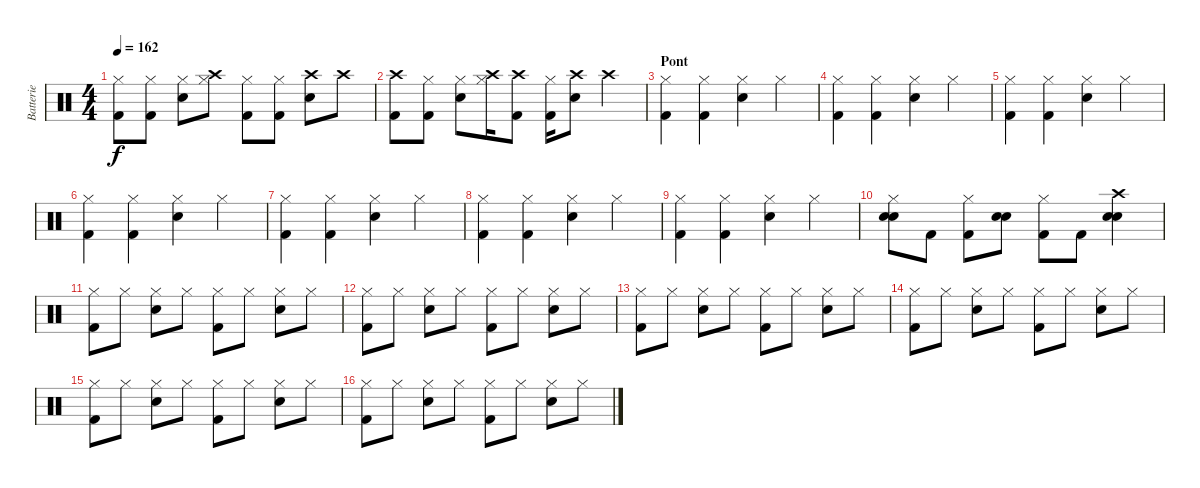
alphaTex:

\track ("Batterie" "Batterie") {instrument percussion}
\staff {score}
\articulation defaults
\ts (4 4)
\tempo 162
\clef neutral
\ks c
("Kick (hit) 2" "Hi-Hat (closed)").8{dy f} ("Kick (hit) 2" "Hi-Hat (closed)").8 ("Snare (hit) 2" "Hi-Hat (closed)").8 ("Hi-Hat (closed)" "Crash high (hit)").8 ("Kick (hit) 2" "Hi-Hat (closed)").8 ("Kick (hit) 2" "Hi-Hat (closed)").8 ("Snare (hit) 2" "Crash high (hit)").8 "Crash high (hit)".8 |
("Kick (hit) 2" "Crash high (hit)").8 ("Kick (hit) 2" "Hi-Hat (closed)").8 ("Snare (hit) 2" "Hi-Hat (closed)").8 ("Hi-Hat (closed)" "Crash high (hit)").16 ("Kick (hit) 2" "Crash high (hit)").8 ("Kick (hit) 2" "Hi-Hat (closed)").16 ("Snare (hit) 2" "Crash high (hit)").8 "Crash high (hit)".4 |
\section ("" "Pont")
("Kick (hit) 2" "Hi-Hat (closed)").4 ("Kick (hit) 2" "Hi-Hat (closed)").4 ("Snare (hit) 2" "Hi-Hat (closed)").4 "Hi-Hat (closed)".4 |
("Kick (hit) 2" "Hi-Hat (closed)").4 ("Kick (hit) 2" "Hi-Hat (closed)").4 ("Snare (hit) 2" "Hi-Hat (closed)").4 "Hi-Hat (closed)".4 |
("Kick (hit) 2" "Hi-Hat (closed)").4 ("Kick (hit) 2" "Hi-Hat (closed)").4 ("Snare (hit) 2" "Hi-Hat (closed)").4 "Hi-Hat (closed)".4 |
("Kick (hit) 2" "Hi-Hat (closed)").4 ("Kick (hit) 2" "Hi-Hat (closed)").4 ("Snare (hit) 2" "Hi-Hat (closed)").4 "Hi-Hat (closed)".4 |
("Kick (hit) 2" "Hi-Hat (closed)").4 ("Kick (hit) 2" "Hi-Hat (closed)").4 ("Snare (hit) 2" "Hi-Hat (closed)").4 "Hi-Hat (closed)".4 |
("Kick (hit) 2" "Hi-Hat (closed)").4 ("Kick (hit) 2" "Hi-Hat (closed)").4 ("Snare (hit) 2" "Hi-Hat (closed)").4 "Hi-Hat (closed)".4 |
("Kick (hit) 2" "Hi-Hat (closed)").4 ("Kick (hit) 2" "Hi-Hat (closed)").4 ("Snare (hit) 2" "Hi-Hat (closed)").4 "Hi-Hat (closed)".4 |
("Snare (hit) 2" "Snare (hit) 2" "Hi-Hat (closed)").8 "Kick (hit) 2".8 ("Kick (hit) 2" "Hi-Hat (closed)").8 ("Snare (hit) 2" "Snare (hit) 2").8 ("Kick (hit) 2" "Hi-Hat (closed)").8 "Kick (hit) 2".8 ("Snare (hit) 2" "Snare (hit) 2" "Crash high (hit)").4 |
("Kick (hit) 2" "Hi-Hat (closed)").8 "Hi-Hat (closed)".8 ("Snare (hit) 2" "Hi-Hat (closed)").8 "Hi-Hat (closed)".8 ("Kick (hit) 2" "Hi-Hat (closed)").8 "Hi-Hat (closed)".8 ("Snare (hit) 2" "Hi-Hat (closed)").8 "Hi-Hat (closed)".8 |
("Kick (hit) 2" "Hi-Hat (closed)").8 "Hi-Hat (closed)".8 ("Snare (hit) 2" "Hi-Hat (closed)").8 "Hi-Hat (closed)".8 ("Kick (hit) 2" "Hi-Hat (closed)").8 "Hi-Hat (closed)".8 ("Snare (hit) 2" "Hi-Hat (closed)").8 "Hi-Hat (closed)".8 |
("Kick (hit) 2" "Hi-Hat (closed)").8 "Hi-Hat (closed)".8 ("Snare (hit) 2" "Hi-Hat (closed)").8 "Hi-Hat (closed)".8 ("Kick (hit) 2" "Hi-Hat (closed)").8 "Hi-Hat (closed)".8 ("Snare (hit) 2" "Hi-Hat (closed)").8 "Hi-Hat (closed)".8 |
("Kick (hit) 2" "Hi-Hat (closed)").8 "Hi-Hat (closed)".8 ("Snare (hit) 2" "Hi-Hat (closed)").8 "Hi-Hat (closed)".8 ("Kick (hit) 2" "Hi-Hat (closed)").8 "Hi-Hat (closed)".8 ("Snare (hit) 2" "Hi-Hat (closed)").8 "Hi-Hat (closed)".8 |
("Kick (hit) 2" "Hi-Hat (closed)").8 "Hi-Hat (closed)".8 ("Snare (hit) 2" "Hi-Hat (closed)").8 "Hi-Hat (closed)".8 ("Kick (hit) 2" "Hi-Hat (closed)").8 "Hi-Hat (closed)".8 ("Snare (hit) 2" "Hi-Hat (closed)").8 "Hi-Hat (closed)".8 |
("Kick (hit) 2" "Hi-Hat (closed)").8 "Hi-Hat (closed)".8 ("Snare (hit) 2" "Hi-Hat (closed)").8 "Hi-Hat (closed)".8 ("Kick (hit) 2" "Hi-Hat (closed)").8 "Hi-Hat (closed)".8 ("Snare (hit) 2" "Hi-Hat (closed)").8 "Hi-Hat (closed)".8
